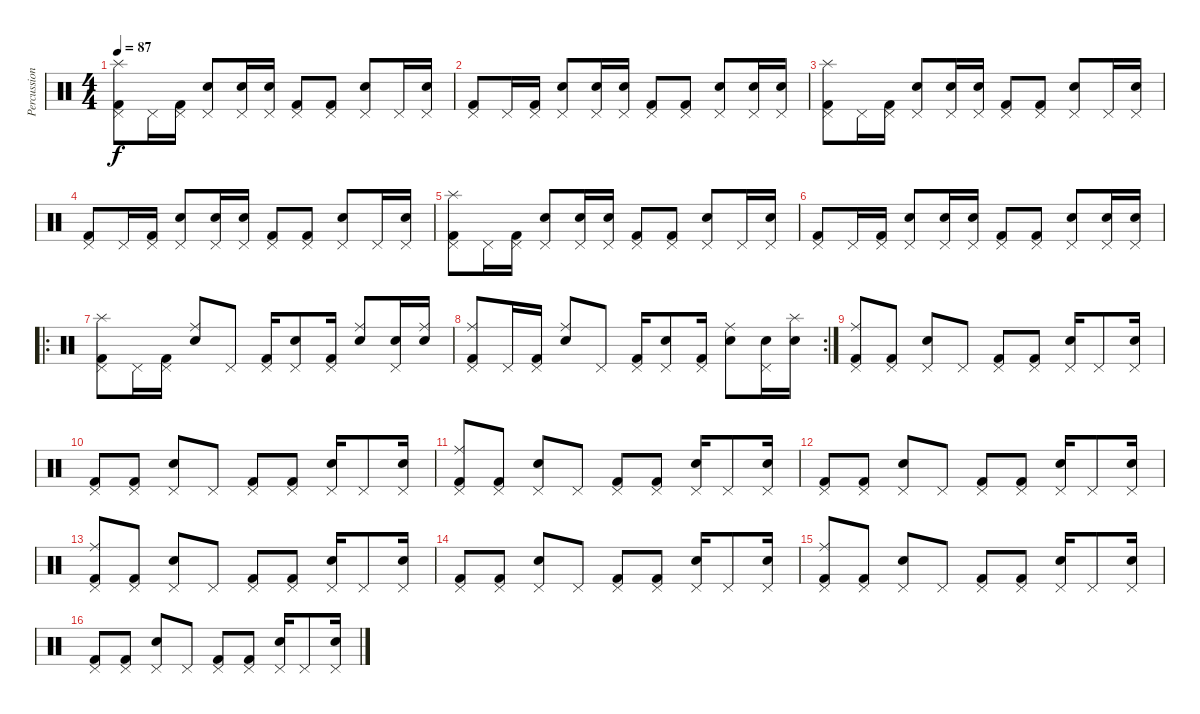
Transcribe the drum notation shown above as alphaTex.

\track ("Percussions" "Percussion") {instrument percussion}
\staff {score}
\articulation defaults
\ts (4 4)
\tempo 87
\clef neutral
\ks c
("Splash (hit)" "Pedal Hi-Hat (hit)" "Kick (hit) 2").8{dy f} "Pedal Hi-Hat (hit)".16 ("Pedal Hi-Hat (hit)" "Kick (hit) 2").16 ("Pedal Hi-Hat (hit)" "Snare (hit) 2").8 ("Pedal Hi-Hat (hit)" "Snare (hit) 2").16 ("Pedal Hi-Hat (hit)" "Snare (hit) 2").16 ("Pedal Hi-Hat (hit)" "Kick (hit) 2").8 ("Pedal Hi-Hat (hit)" "Kick (hit) 2").8 ("Pedal Hi-Hat (hit)" "Snare (hit) 2").8 "Pedal Hi-Hat (hit)".16 ("Pedal Hi-Hat (hit)" "Snare (hit) 2").16 |
("Pedal Hi-Hat (hit)" "Kick (hit) 2").8 "Pedal Hi-Hat (hit)".16 ("Pedal Hi-Hat (hit)" "Kick (hit) 2").16 ("Pedal Hi-Hat (hit)" "Snare (hit) 2").8 ("Pedal Hi-Hat (hit)" "Snare (hit) 2").16 ("Pedal Hi-Hat (hit)" "Snare (hit) 2").16 ("Pedal Hi-Hat (hit)" "Kick (hit) 2").8 ("Pedal Hi-Hat (hit)" "Kick (hit) 2").8 ("Pedal Hi-Hat (hit)" "Snare (hit) 2").8 ("Pedal Hi-Hat (hit)" "Snare (hit) 2").16 ("Pedal Hi-Hat (hit)" "Snare (hit) 2").16 |
("Splash (hit)" "Pedal Hi-Hat (hit)" "Kick (hit) 2").8 "Pedal Hi-Hat (hit)".16 ("Pedal Hi-Hat (hit)" "Kick (hit) 2").16 ("Pedal Hi-Hat (hit)" "Snare (hit) 2").8 ("Pedal Hi-Hat (hit)" "Snare (hit) 2").16 ("Pedal Hi-Hat (hit)" "Snare (hit) 2").16 ("Pedal Hi-Hat (hit)" "Kick (hit) 2").8 ("Pedal Hi-Hat (hit)" "Kick (hit) 2").8 ("Pedal Hi-Hat (hit)" "Snare (hit) 2").8 "Pedal Hi-Hat (hit)".16 ("Pedal Hi-Hat (hit)" "Snare (hit) 2").16 |
("Pedal Hi-Hat (hit)" "Kick (hit) 2").8 "Pedal Hi-Hat (hit)".16 ("Pedal Hi-Hat (hit)" "Kick (hit) 2").16 ("Pedal Hi-Hat (hit)" "Snare (hit) 2").8 ("Pedal Hi-Hat (hit)" "Snare (hit) 2").16 ("Pedal Hi-Hat (hit)" "Snare (hit) 2").16 ("Pedal Hi-Hat (hit)" "Kick (hit) 2").8 ("Pedal Hi-Hat (hit)" "Kick (hit) 2").8 ("Pedal Hi-Hat (hit)" "Snare (hit) 2").8 "Pedal Hi-Hat (hit)".16 ("Pedal Hi-Hat (hit)" "Snare (hit) 2").16 |
("Splash (hit)" "Pedal Hi-Hat (hit)" "Kick (hit) 2").8 "Pedal Hi-Hat (hit)".16 ("Pedal Hi-Hat (hit)" "Kick (hit) 2").16 ("Pedal Hi-Hat (hit)" "Snare (hit) 2").8 ("Pedal Hi-Hat (hit)" "Snare (hit) 2").16 ("Pedal Hi-Hat (hit)" "Snare (hit) 2").16 ("Pedal Hi-Hat (hit)" "Kick (hit) 2").8 ("Pedal Hi-Hat (hit)" "Kick (hit) 2").8 ("Pedal Hi-Hat (hit)" "Snare (hit) 2").8 "Pedal Hi-Hat (hit)".16 ("Pedal Hi-Hat (hit)" "Snare (hit) 2").16 |
("Pedal Hi-Hat (hit)" "Kick (hit) 2").8 "Pedal Hi-Hat (hit)".16 ("Pedal Hi-Hat (hit)" "Kick (hit) 2").16 ("Pedal Hi-Hat (hit)" "Snare (hit) 2").8 ("Pedal Hi-Hat (hit)" "Snare (hit) 2").16 ("Pedal Hi-Hat (hit)" "Snare (hit) 2").16 ("Pedal Hi-Hat (hit)" "Kick (hit) 2").8 ("Pedal Hi-Hat (hit)" "Kick (hit) 2").8 ("Pedal Hi-Hat (hit)" "Snare (hit) 2").8 ("Pedal Hi-Hat (hit)" "Snare (hit) 2").16 ("Pedal Hi-Hat (hit)" "Snare (hit) 2").16 |
\ro
("Splash (hit)" "Pedal Hi-Hat (hit)" "Kick (hit) 2").8 "Pedal Hi-Hat (hit)".16 ("Pedal Hi-Hat (hit)" "Kick (hit) 2").16 ("Ride (middle)" "Snare (hit) 2").8 "Pedal Hi-Hat (hit)".8 ("Pedal Hi-Hat (hit)" "Kick (hit) 2").16 ("Pedal Hi-Hat (hit)" "Snare (hit) 2").8 ("Pedal Hi-Hat (hit)" "Kick (hit) 2").16 ("Ride (middle)" "Snare (hit) 2").8 ("Pedal Hi-Hat (hit)" "Snare (hit) 2").16 ("Ride (middle)" "Snare (hit) 2").16 |
\rc 2
("Ride (middle)" "Pedal Hi-Hat (hit)" "Kick (hit) 2").8 "Pedal Hi-Hat (hit)".16 ("Pedal Hi-Hat (hit)" "Kick (hit) 2").16 ("Ride (middle)" "Snare (hit) 2").8 "Pedal Hi-Hat (hit)".8 ("Pedal Hi-Hat (hit)" "Kick (hit) 2").16 ("Pedal Hi-Hat (hit)" "Snare (hit) 2").8 ("Pedal Hi-Hat (hit)" "Kick (hit) 2").16 ("Ride (middle)" "Snare (hit) 2").8 ("Pedal Hi-Hat (hit)" "Snare (hit) 2").16 ("Splash (hit)" "Snare (hit) 2").16 |
("Ride (middle)" "Pedal Hi-Hat (hit)" "Kick (hit) 2").8 ("Pedal Hi-Hat (hit)" "Kick (hit) 2").8 ("Pedal Hi-Hat (hit)" "Snare (hit) 2").8 "Pedal Hi-Hat (hit)".8 ("Pedal Hi-Hat (hit)" "Kick (hit) 2").8 ("Pedal Hi-Hat (hit)" "Kick (hit) 2").8 ("Pedal Hi-Hat (hit)" "Snare (hit) 2").16 "Pedal Hi-Hat (hit)".8 ("Pedal Hi-Hat (hit)" "Snare (hit) 2").16 |
("Pedal Hi-Hat (hit)" "Kick (hit) 2").8 ("Pedal Hi-Hat (hit)" "Kick (hit) 2").8 ("Pedal Hi-Hat (hit)" "Snare (hit) 2").8 "Pedal Hi-Hat (hit)".8 ("Pedal Hi-Hat (hit)" "Kick (hit) 2").8 ("Pedal Hi-Hat (hit)" "Kick (hit) 2").8 ("Pedal Hi-Hat (hit)" "Snare (hit) 2").16 "Pedal Hi-Hat (hit)".8 ("Pedal Hi-Hat (hit)" "Snare (hit) 2").16 |
("Ride (middle)" "Pedal Hi-Hat (hit)" "Kick (hit) 2").8 ("Pedal Hi-Hat (hit)" "Kick (hit) 2").8 ("Pedal Hi-Hat (hit)" "Snare (hit) 2").8 "Pedal Hi-Hat (hit)".8 ("Pedal Hi-Hat (hit)" "Kick (hit) 2").8 ("Pedal Hi-Hat (hit)" "Kick (hit) 2").8 ("Pedal Hi-Hat (hit)" "Snare (hit) 2").16 "Pedal Hi-Hat (hit)".8 ("Pedal Hi-Hat (hit)" "Snare (hit) 2").16 |
("Pedal Hi-Hat (hit)" "Kick (hit) 2").8 ("Pedal Hi-Hat (hit)" "Kick (hit) 2").8 ("Pedal Hi-Hat (hit)" "Snare (hit) 2").8 "Pedal Hi-Hat (hit)".8 ("Pedal Hi-Hat (hit)" "Kick (hit) 2").8 ("Pedal Hi-Hat (hit)" "Kick (hit) 2").8 ("Pedal Hi-Hat (hit)" "Snare (hit) 2").16 "Pedal Hi-Hat (hit)".8 ("Pedal Hi-Hat (hit)" "Snare (hit) 2").16 |
("Ride (middle)" "Pedal Hi-Hat (hit)" "Kick (hit) 2").8 ("Pedal Hi-Hat (hit)" "Kick (hit) 2").8 ("Pedal Hi-Hat (hit)" "Snare (hit) 2").8 "Pedal Hi-Hat (hit)".8 ("Pedal Hi-Hat (hit)" "Kick (hit) 2").8 ("Pedal Hi-Hat (hit)" "Kick (hit) 2").8 ("Pedal Hi-Hat (hit)" "Snare (hit) 2").16 "Pedal Hi-Hat (hit)".8 ("Pedal Hi-Hat (hit)" "Snare (hit) 2").16 |
("Pedal Hi-Hat (hit)" "Kick (hit) 2").8 ("Pedal Hi-Hat (hit)" "Kick (hit) 2").8 ("Pedal Hi-Hat (hit)" "Snare (hit) 2").8 "Pedal Hi-Hat (hit)".8 ("Pedal Hi-Hat (hit)" "Kick (hit) 2").8 ("Pedal Hi-Hat (hit)" "Kick (hit) 2").8 ("Pedal Hi-Hat (hit)" "Snare (hit) 2").16 "Pedal Hi-Hat (hit)".8 ("Pedal Hi-Hat (hit)" "Snare (hit) 2").16 |
("Ride (middle)" "Pedal Hi-Hat (hit)" "Kick (hit) 2").8 ("Pedal Hi-Hat (hit)" "Kick (hit) 2").8 ("Pedal Hi-Hat (hit)" "Snare (hit) 2").8 "Pedal Hi-Hat (hit)".8 ("Pedal Hi-Hat (hit)" "Kick (hit) 2").8 ("Pedal Hi-Hat (hit)" "Kick (hit) 2").8 ("Pedal Hi-Hat (hit)" "Snare (hit) 2").16 "Pedal Hi-Hat (hit)".8 ("Pedal Hi-Hat (hit)" "Snare (hit) 2").16 |
("Pedal Hi-Hat (hit)" "Kick (hit) 2").8 ("Pedal Hi-Hat (hit)" "Kick (hit) 2").8 ("Pedal Hi-Hat (hit)" "Snare (hit) 2").8 "Pedal Hi-Hat (hit)".8 ("Pedal Hi-Hat (hit)" "Kick (hit) 2").8 ("Pedal Hi-Hat (hit)" "Kick (hit) 2").8 ("Pedal Hi-Hat (hit)" "Snare (hit) 2").16 "Pedal Hi-Hat (hit)".8 ("Pedal Hi-Hat (hit)" "Snare (hit) 2").16
